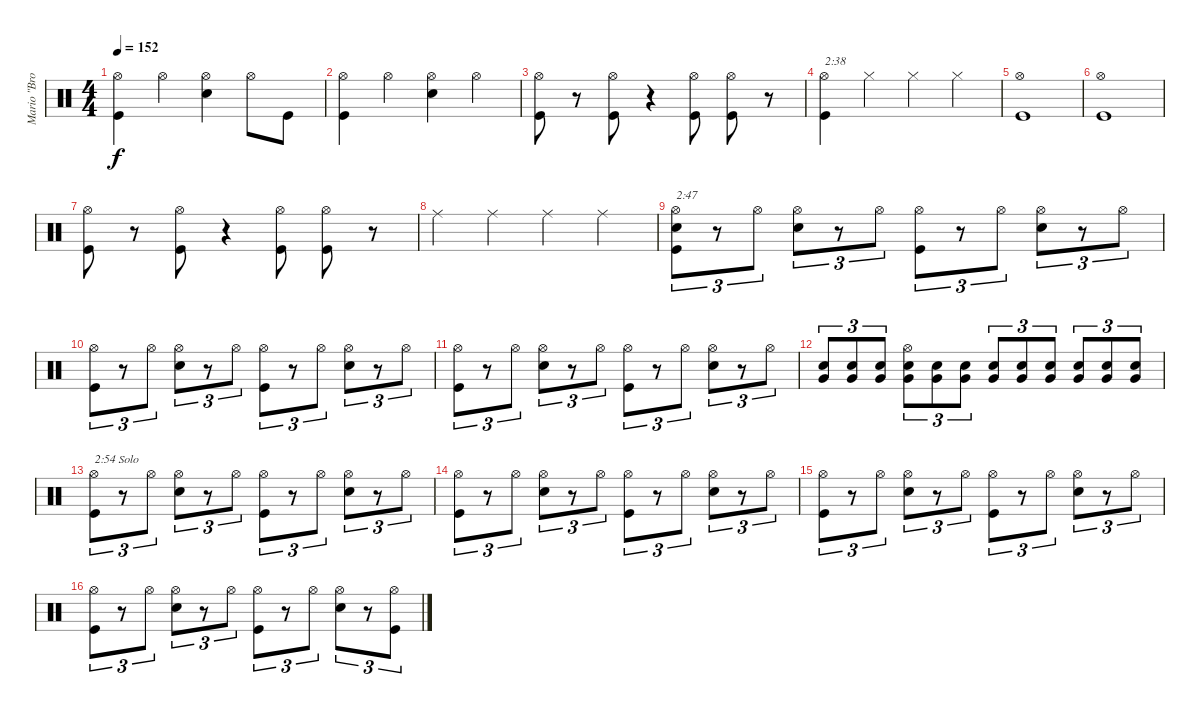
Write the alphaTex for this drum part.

\track ("Mario \"Bros\" Carvajal" "Mario \"Bro") {instrument percussion}
\staff {score}
\articulation defaults
\ts (4 4)
\tempo 152
\clef neutral
\ks c
("Kick (hit)" "Hi-Hat (open)").4{dy f} "Hi-Hat (open)".4 ("Snare (hit) 2" "Hi-Hat (open)").4 "Hi-Hat (open)".8 "Kick (hit)".8 |
("Kick (hit)" "Hi-Hat (open)").4 "Hi-Hat (open)".4 ("Snare (hit) 2" "Hi-Hat (open)").4 "Hi-Hat (open)".4 |
("Kick (hit)" "Hi-Hat (open)").8 r.8 ("Kick (hit)" "Hi-Hat (open)").8 r.4 ("Kick (hit)" "Hi-Hat (open)").8 ("Kick (hit)" "Hi-Hat (open)").8 r.8 |
("Kick (hit)" "Hi-Hat (open)").4{txt "2:38"} "Hi-Hat (closed)".4 "Hi-Hat (closed)".4 "Hi-Hat (closed)".4 |
("Kick (hit)" "Hi-Hat (open)").1 |
("Kick (hit)" "Hi-Hat (open)").1 |
("Kick (hit)" "Hi-Hat (open)").8 r.8 ("Kick (hit)" "Hi-Hat (open)").8 r.4 ("Kick (hit)" "Hi-Hat (open)").8 ("Kick (hit)" "Hi-Hat (open)").8 r.8 |
"Ride (middle)".4 "Ride (middle)".4 "Ride (middle)".4 "Ride (middle)".4 |
("Kick (hit)" "Hi-Hat (open)" "Snare (hit) 2").8{tu (3 2) txt "2:47"} r.8{tu (3 2)} "Hi-Hat (open)".8{tu (3 2)} ("Snare (hit) 2" "Hi-Hat (open)").8{tu (3 2)} r.8{tu (3 2)} "Hi-Hat (open)".8{tu (3 2)} ("Kick (hit)" "Hi-Hat (open)").8{tu (3 2)} r.8{tu (3 2)} "Hi-Hat (open)".8{tu (3 2)} ("Snare (hit) 2" "Hi-Hat (open)").8{tu (3 2)} r.8{tu (3 2)} "Hi-Hat (open)".8{tu (3 2)} |
("Kick (hit)" "Hi-Hat (open)").8{tu (3 2)} r.8{tu (3 2)} "Hi-Hat (open)".8{tu (3 2)} ("Snare (hit) 2" "Hi-Hat (open)").8{tu (3 2)} r.8{tu (3 2)} "Hi-Hat (open)".8{tu (3 2)} ("Kick (hit)" "Hi-Hat (open)").8{tu (3 2)} r.8{tu (3 2)} "Hi-Hat (open)".8{tu (3 2)} ("Snare (hit) 2" "Hi-Hat (open)").8{tu (3 2)} r.8{tu (3 2)} "Hi-Hat (open)".8{tu (3 2)} |
("Kick (hit)" "Hi-Hat (open)").8{tu (3 2)} r.8{tu (3 2)} "Hi-Hat (open)".8{tu (3 2)} ("Snare (hit) 2" "Hi-Hat (open)").8{tu (3 2)} r.8{tu (3 2)} "Hi-Hat (open)".8{tu (3 2)} ("Kick (hit)" "Hi-Hat (open)").8{tu (3 2)} r.8{tu (3 2)} "Hi-Hat (open)".8{tu (3 2)} ("Snare (hit) 2" "Hi-Hat (open)").8{tu (3 2)} r.8{tu (3 2)} "Hi-Hat (open)".8{tu (3 2)} |
("Snare (hit) 2" "Very Low Tom (hit)").8{tu (3 2)} ("Snare (hit) 2" "Very Low Tom (hit)").8{tu (3 2)} ("Snare (hit) 2" "Very Low Tom (hit)").8{tu (3 2)} ("Snare (hit) 2" "Very Low Tom (hit)" "Hi-Hat (open)").8{tu (3 2)} ("Snare (hit) 2" "Very Low Tom (hit)").8{tu (3 2)} ("Snare (hit) 2" "Very Low Tom (hit)").8{tu (3 2)} ("Snare (hit) 2" "Very Low Tom (hit)").8{tu (3 2)} ("Snare (hit) 2" "Very Low Tom (hit)").8{tu (3 2)} ("Snare (hit) 2" "Very Low Tom (hit)").8{tu (3 2)} ("Snare (hit) 2" "Very Low Tom (hit)").8{tu (3 2)} ("Snare (hit) 2" "Very Low Tom (hit)").8{tu (3 2)} ("Snare (hit) 2" "Very Low Tom (hit)").8{tu (3 2)} |
("Kick (hit)" "Hi-Hat (open)").8{tu (3 2) txt "2:54 Solo"} r.8{tu (3 2)} "Hi-Hat (open)".8{tu (3 2)} ("Snare (hit) 2" "Hi-Hat (open)").8{tu (3 2)} r.8{tu (3 2)} "Hi-Hat (open)".8{tu (3 2)} ("Kick (hit)" "Hi-Hat (open)").8{tu (3 2)} r.8{tu (3 2)} "Hi-Hat (open)".8{tu (3 2)} ("Snare (hit) 2" "Hi-Hat (open)").8{tu (3 2)} r.8{tu (3 2)} "Hi-Hat (open)".8{tu (3 2)} |
("Kick (hit)" "Hi-Hat (open)").8{tu (3 2)} r.8{tu (3 2)} "Hi-Hat (open)".8{tu (3 2)} ("Snare (hit) 2" "Hi-Hat (open)").8{tu (3 2)} r.8{tu (3 2)} "Hi-Hat (open)".8{tu (3 2)} ("Kick (hit)" "Hi-Hat (open)").8{tu (3 2)} r.8{tu (3 2)} "Hi-Hat (open)".8{tu (3 2)} ("Snare (hit) 2" "Hi-Hat (open)").8{tu (3 2)} r.8{tu (3 2)} "Hi-Hat (open)".8{tu (3 2)} |
("Kick (hit)" "Hi-Hat (open)").8{tu (3 2)} r.8{tu (3 2)} "Hi-Hat (open)".8{tu (3 2)} ("Snare (hit) 2" "Hi-Hat (open)").8{tu (3 2)} r.8{tu (3 2)} "Hi-Hat (open)".8{tu (3 2)} ("Kick (hit)" "Hi-Hat (open)").8{tu (3 2)} r.8{tu (3 2)} "Hi-Hat (open)".8{tu (3 2)} ("Snare (hit) 2" "Hi-Hat (open)").8{tu (3 2)} r.8{tu (3 2)} "Hi-Hat (open)".8{tu (3 2)} |
("Kick (hit)" "Hi-Hat (open)").8{tu (3 2)} r.8{tu (3 2)} "Hi-Hat (open)".8{tu (3 2)} ("Snare (hit) 2" "Hi-Hat (open)").8{tu (3 2)} r.8{tu (3 2)} "Hi-Hat (open)".8{tu (3 2)} ("Kick (hit)" "Hi-Hat (open)").8{tu (3 2)} r.8{tu (3 2)} "Hi-Hat (open)".8{tu (3 2)} ("Snare (hit) 2" "Hi-Hat (open)").8{tu (3 2)} r.8{tu (3 2)} ("Kick (hit)" "Hi-Hat (open)").8{tu (3 2)}
